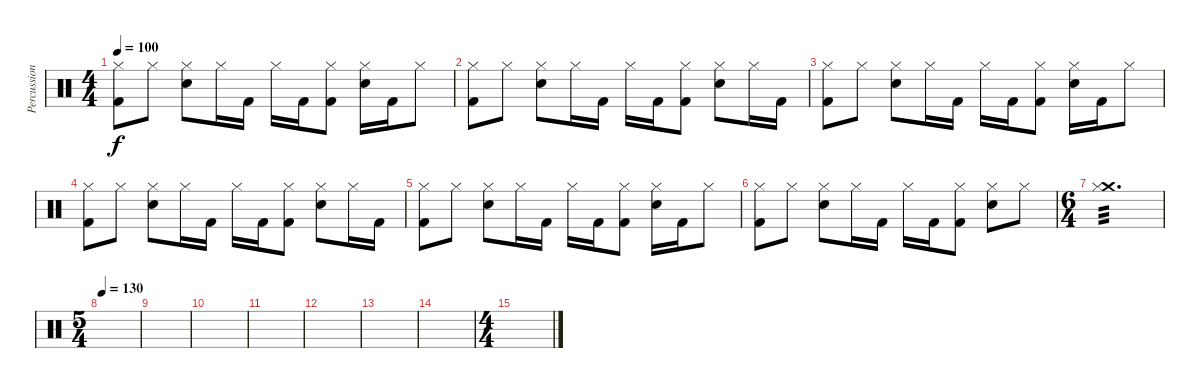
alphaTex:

\track ("Percussion" "Percussion") {instrument percussion}
\staff {score}
\articulation defaults
\ts (4 4)
\tempo 100
\clef neutral
\ks c
("Hi-Hat (closed)" "Kick (hit) 2").8{dy f} "Hi-Hat (closed)".8 ("Hi-Hat (closed)" "Electric Snare (hit)").8 "Hi-Hat (closed)".16 "Kick (hit) 2".16 "Hi-Hat (closed)".16 "Kick (hit) 2".16 ("Hi-Hat (closed)" "Kick (hit) 2").8 ("Hi-Hat (closed)" "Electric Snare (hit)").16 "Kick (hit) 2".16 "Hi-Hat (closed)".8 |
("Hi-Hat (closed)" "Kick (hit) 2").8 "Hi-Hat (closed)".8 ("Hi-Hat (closed)" "Electric Snare (hit)").8 "Hi-Hat (closed)".16 "Kick (hit) 2".16 "Hi-Hat (closed)".16 "Kick (hit) 2".16 ("Hi-Hat (closed)" "Kick (hit) 2").8 ("Hi-Hat (closed)" "Electric Snare (hit)").8 "Hi-Hat (closed)".16 "Kick (hit) 2".16 |
("Hi-Hat (closed)" "Kick (hit) 2").8 "Hi-Hat (closed)".8 ("Hi-Hat (closed)" "Electric Snare (hit)").8 "Hi-Hat (closed)".16 "Kick (hit) 2".16 "Hi-Hat (closed)".16 "Kick (hit) 2".16 ("Hi-Hat (closed)" "Kick (hit) 2").8 ("Hi-Hat (closed)" "Electric Snare (hit)").16 "Kick (hit) 2".16 "Hi-Hat (closed)".8 |
("Hi-Hat (closed)" "Kick (hit) 2").8 "Hi-Hat (closed)".8 ("Hi-Hat (closed)" "Electric Snare (hit)").8 "Hi-Hat (closed)".16 "Kick (hit) 2".16 "Hi-Hat (closed)".16 "Kick (hit) 2".16 ("Hi-Hat (closed)" "Kick (hit) 2").8 ("Hi-Hat (closed)" "Electric Snare (hit)").8 "Hi-Hat (closed)".16 "Kick (hit) 2".16 |
("Hi-Hat (closed)" "Kick (hit) 2").8 "Hi-Hat (closed)".8 ("Hi-Hat (closed)" "Electric Snare (hit)").8 "Hi-Hat (closed)".16 "Kick (hit) 2".16 "Hi-Hat (closed)".16 "Kick (hit) 2".16 ("Hi-Hat (closed)" "Kick (hit) 2").8 ("Hi-Hat (closed)" "Electric Snare (hit)").16 "Kick (hit) 2".16 "Hi-Hat (closed)".8 |
("Hi-Hat (closed)" "Kick (hit) 2").8 "Hi-Hat (closed)".8 ("Hi-Hat (closed)" "Electric Snare (hit)").8 "Hi-Hat (closed)".16 "Kick (hit) 2".16 "Hi-Hat (closed)".16 "Kick (hit) 2".16 ("Hi-Hat (closed)" "Kick (hit) 2").8 ("Hi-Hat (closed)" "Electric Snare (hit)").8 "Hi-Hat (closed)".8 |
\ts (6 4)
("Crash medium (hit)" "Hi-Hat (closed)").1{d tp 3} |
\ts (5 4)
\tempo 130
|
|
|
|
|
|
|
\ts (4 4)
